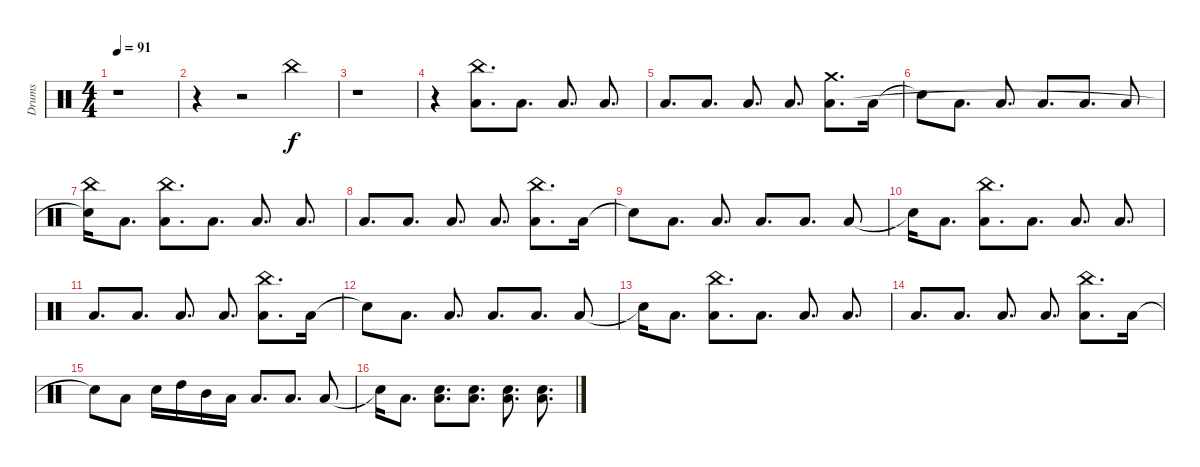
\track ("Drums" "Drums") {instrument percussion}
\staff {score}
\articulation defaults
\ts (4 4)
\tempo 91
\clef neutral
\ks c
r.1{dy f} |
r.4 r.2 "China (hit)".4 |
r.1 |
r.4 ("China (hit)" "Low Tom (hit)").8{d} "Low Tom (hit)".8{d} "Low Tom (hit)".8{d} "Low Tom (hit)".8{d} |
"Low Tom (hit)".8{d} "Low Tom (hit)".8{d} "Low Tom (hit)".8{d} "Low Tom (hit)".8{d} ("Crash medium (hit)" "Low Tom (hit)").8{d} "Low Tom (hit)".16 |
"Snare (hit)"{t}.8 "Low Tom (hit)".8{d} "Low Tom (hit)".8{d} "Low Tom (hit)".8{d} "Low Tom (hit)".8{d} "Low Tom (hit)".8 |
("China (hit)" "Snare (hit)"{t}).16 "Low Tom (hit)".8{d} ("China (hit)" "Low Tom (hit)").8{d} "Low Tom (hit)".8{d} "Low Tom (hit)".8{d} "Low Tom (hit)".8{d} |
"Low Tom (hit)".8{d} "Low Tom (hit)".8{d} "Low Tom (hit)".8{d} "Low Tom (hit)".8{d} ("China (hit)" "Low Tom (hit)").8{d} "Low Tom (hit)".16 |
"Snare (hit)"{t}.8 "Low Tom (hit)".8{d} "Low Tom (hit)".8{d} "Low Tom (hit)".8{d} "Low Tom (hit)".8{d} "Low Tom (hit)".8 |
"Snare (hit)"{t}.16 "Low Tom (hit)".8{d} ("China (hit)" "Low Tom (hit)").8{d} "Low Tom (hit)".8{d} "Low Tom (hit)".8{d} "Low Tom (hit)".8{d} |
"Low Tom (hit)".8{d} "Low Tom (hit)".8{d} "Low Tom (hit)".8{d} "Low Tom (hit)".8{d} ("China (hit)" "Low Tom (hit)").8{d} "Low Tom (hit)".16 |
"Snare (hit)"{t}.8 "Low Tom (hit)".8{d} "Low Tom (hit)".8{d} "Low Tom (hit)".8{d} "Low Tom (hit)".8{d} "Low Tom (hit)".8 |
"Snare (hit)"{t}.16 "Low Tom (hit)".8{d} ("China (hit)" "Low Tom (hit)").8{d} "Low Tom (hit)".8{d} "Low Tom (hit)".8{d} "Low Tom (hit)".8{d} |
"Low Tom (hit)".8{d} "Low Tom (hit)".8{d} "Low Tom (hit)".8{d} "Low Tom (hit)".8{d} ("China (hit)" "Low Tom (hit)").8{d} "Low Tom (hit)".16 |
"Snare (hit)"{t}.8 "Low Tom (hit)".8 "Electric Snare (hit)".16 "High Tom (hit)".16 "Mid Tom (hit)".16 "Low Tom (hit)".16 "Low Tom (hit)".8{d} "Low Tom (hit)".8{d} "Low Tom (hit)".8 |
"Snare (hit)"{t}.16 "Low Tom (hit)".8{d} ("Low Tom (hit)" "Electric Snare (hit)").8{d} ("Low Tom (hit)" "Electric Snare (hit)").8{d} ("Low Tom (hit)" "Electric Snare (hit)").8{d} ("Low Tom (hit)" "Electric Snare (hit)").8{d}
